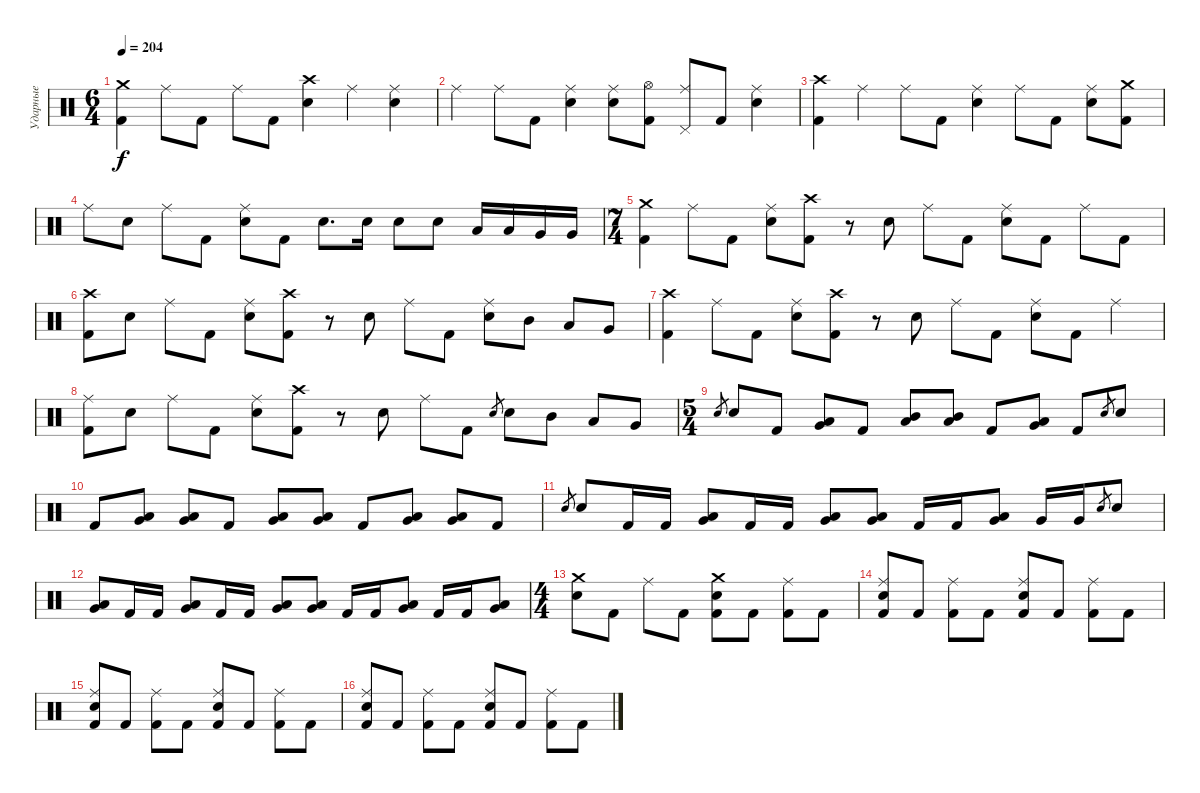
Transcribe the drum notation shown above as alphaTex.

\track ("Ударные" "Ударные") {instrument percussion}
\staff {score}
\articulation defaults
\ts (6 4)
\tempo 204
\clef neutral
\ks c
("Crash medium (hit)" "Kick (hit) 2").4{dy f} "Ride (middle)".8 "Kick (hit) 2".8 "Ride (middle)".8 "Kick (hit) 2".8 ("Crash high (hit)" "Snare (hit) 2").4 "Ride (middle)".4 ("Ride (middle)" "Snare (hit) 2").4 |
"Ride (middle)".4 "Ride (middle)".8 "Kick (hit) 2".8 ("Ride (middle)" "Snare (hit) 2").4 ("Ride (middle)" "Snare (hit) 2").8 ("Hi-Hat (open)" "Kick (hit) 2").8 ("Ride (middle)" "Pedal Hi-Hat (hit)").8 "Kick (hit) 2".8 ("Ride (middle)" "Snare (hit) 2").4 |
("Crash high (hit)" "Kick (hit) 2").4 "Ride (middle)".4 "Ride (middle)".8 "Kick (hit) 2".8 ("Ride (middle)" "Snare (hit) 2").4 "Ride (middle)".8 "Kick (hit) 2".8 ("Ride (middle)" "Snare (hit) 2").8 ("Crash medium (hit)" "Kick (hit) 2").8 |
"Ride (middle)".8 "Snare (hit) 2".8 "Ride (middle)".8 "Kick (hit) 2".8 ("Ride (middle)" "Snare (hit) 2").8 "Kick (hit) 2".8 "Snare (hit) 2".8{d} "Snare (hit) 2".16 "Snare (hit) 2".8 "Snare (hit) 2".8 "Low Tom (hit)".16 "Low Tom (hit)".16 "Very Low Tom (hit)".16 "Very Low Tom (hit)".16 |
\ts (7 4)
("Crash medium (hit)" "Kick (hit) 2").4 "Ride (middle)".8 "Kick (hit) 2".8 ("Ride (middle)" "Snare (hit) 2").8 ("Crash high (hit)" "Kick (hit) 2").8 r.8 "Snare (hit) 2".8 "Ride (middle)".8 "Kick (hit) 2".8 ("Ride (middle)" "Snare (hit) 2").8 "Kick (hit) 2".8 "Ride (middle)".8 "Kick (hit) 2".8 |
("Crash high (hit)" "Kick (hit) 2").8 "Snare (hit) 2".8 "Ride (middle)".8 "Kick (hit) 2".8 ("Ride (middle)" "Snare (hit) 2").8 ("Crash high (hit)" "Kick (hit) 2").8 r.8 "Snare (hit) 2".8 "Ride (middle)".8 "Kick (hit) 2".8 ("Ride (middle)" "Snare (hit) 2").8 "Mid Tom (hit)".8 "Low Tom (hit)".8 "Very Low Tom (hit)".8 |
("Crash high (hit)" "Kick (hit) 2").4 "Ride (middle)".8 "Kick (hit) 2".8 ("Ride (middle)" "Snare (hit) 2").8 ("Crash high (hit)" "Kick (hit) 2").8 r.8 "Snare (hit) 2".8 "Ride (middle)".8 "Kick (hit) 2".8 ("Ride (middle)" "Snare (hit) 2").8 "Kick (hit) 2".8 "Ride (middle)".4 |
("Ride (middle)" "Kick (hit) 2").8 "Snare (hit) 2".8 "Ride (middle)".8 "Kick (hit) 2".8 ("Ride (middle)" "Snare (hit) 2").8 ("Crash high (hit)" "Kick (hit) 2").8 r.8 "Snare (hit) 2".8 "Ride (middle)".8 "Kick (hit) 2".8 "Snare (hit) 2".8{gr} "Snare (hit) 2".8 "Mid Tom (hit)".8 "Low Tom (hit)".8 "Very Low Tom (hit)".8 |
\ts (5 4)
"Snare (hit) 2".8{gr} "Snare (hit) 2".8 "Kick (hit) 2".8 ("Low Tom (hit)" "Very Low Tom (hit)").8 "Kick (hit) 2".8 ("Mid Tom (hit)" "Low Tom (hit)").8 ("Mid Tom (hit)" "Low Tom (hit)").8 "Kick (hit) 2".8 ("Low Tom (hit)" "Very Low Tom (hit)").8 "Kick (hit) 2".8 "Snare (hit) 2".8{gr} "Snare (hit) 2".8 |
"Kick (hit) 2".8 ("Low Tom (hit)" "Very Low Tom (hit)").8 ("Low Tom (hit)" "Very Low Tom (hit)").8 "Kick (hit) 2".8 ("Low Tom (hit)" "Very Low Tom (hit)").8 ("Low Tom (hit)" "Very Low Tom (hit)").8 "Kick (hit) 2".8 ("Low Tom (hit)" "Very Low Tom (hit)").8 ("Low Tom (hit)" "Very Low Tom (hit)").8 "Kick (hit) 2".8 |
"Snare (hit) 2".8{gr} "Snare (hit) 2".8 "Kick (hit) 2".16 "Kick (hit) 2".16 ("Low Tom (hit)" "Very Low Tom (hit)").8 "Kick (hit) 2".16 "Kick (hit) 2".16 ("Low Tom (hit)" "Very Low Tom (hit)").8 ("Low Tom (hit)" "Very Low Tom (hit)").8 "Kick (hit) 2".16 "Kick (hit) 2".16 ("Low Tom (hit)" "Very Low Tom (hit)").8 "Very Low Tom (hit)".16 "Very Low Tom (hit)".16 "Snare (hit) 2".8{gr} "Snare (hit) 2".8 |
("Low Tom (hit)" "Very Low Tom (hit)").8 "Kick (hit) 2".16 "Kick (hit) 2".16 ("Low Tom (hit)" "Very Low Tom (hit)").8 "Kick (hit) 2".16 "Kick (hit) 2".16 ("Low Tom (hit)" "Very Low Tom (hit)").8 ("Low Tom (hit)" "Very Low Tom (hit)").8 "Kick (hit) 2".16 "Kick (hit) 2".16 ("Low Tom (hit)" "Very Low Tom (hit)").8 "Kick (hit) 2".16 "Kick (hit) 2".16 ("Low Tom (hit)" "Very Low Tom (hit)").8 |
\ts (4 4)
("Crash medium (hit)" "Snare (hit) 2").8 "Kick (hit) 2".8 "Ride (middle)".8 "Kick (hit) 2".8 ("Crash medium (hit)" "Snare (hit) 2" "Kick (hit) 2").8 "Kick (hit) 2".8 ("Ride (middle)" "Kick (hit) 2").8 "Kick (hit) 2".8 |
("Ride (middle)" "Snare (hit) 2" "Kick (hit) 2").8 "Kick (hit) 2".8 ("Ride (middle)" "Kick (hit) 2").8 "Kick (hit) 2".8 ("Ride (middle)" "Snare (hit) 2" "Kick (hit) 2").8 "Kick (hit) 2".8 ("Ride (middle)" "Kick (hit) 2").8 "Kick (hit) 2".8 |
("Ride (middle)" "Snare (hit) 2" "Kick (hit) 2").8 "Kick (hit) 2".8 ("Ride (middle)" "Kick (hit) 2").8 "Kick (hit) 2".8 ("Ride (middle)" "Snare (hit) 2" "Kick (hit) 2").8 "Kick (hit) 2".8 ("Ride (middle)" "Kick (hit) 2").8 "Kick (hit) 2".8 |
("Ride (middle)" "Snare (hit) 2" "Kick (hit) 2").8 "Kick (hit) 2".8 ("Ride (middle)" "Kick (hit) 2").8 "Kick (hit) 2".8 ("Ride (middle)" "Snare (hit) 2" "Kick (hit) 2").8 "Kick (hit) 2".8 ("Ride (middle)" "Kick (hit) 2").8 "Kick (hit) 2".8
